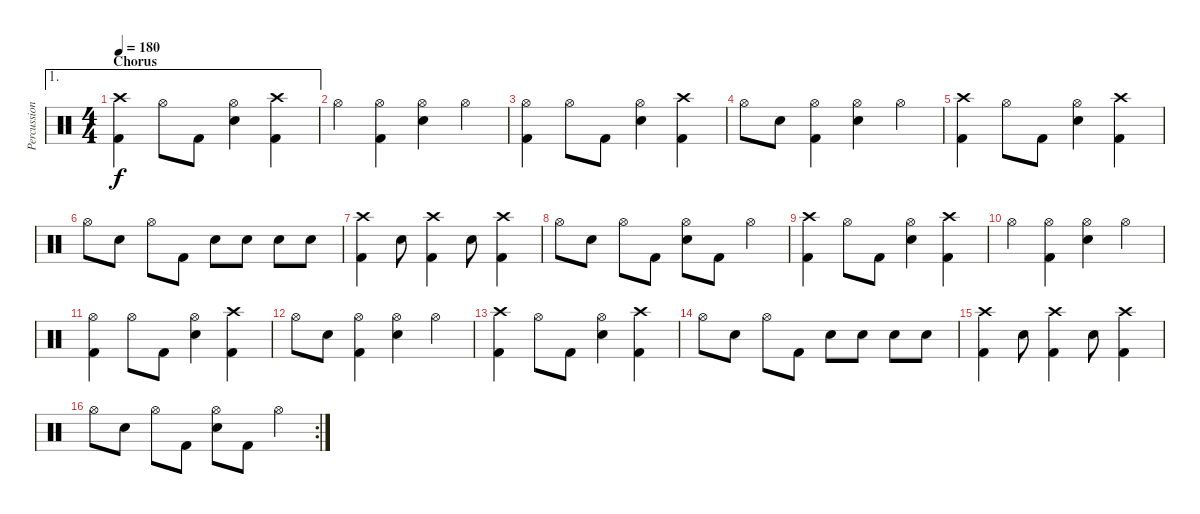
\track ("Percussion" "Percussion") {instrument percussion}
\staff {score}
\articulation defaults
\ae 1
\ts (4 4)
\section ("" "Chorus")
\tempo 180
\clef neutral
\ks c
("Crash high (hit)" "Kick (hit) 2").4{dy f} "Hi-Hat (open)".8 "Kick (hit) 2".8 ("Hi-Hat (open)" "Electric Snare (hit)").4 ("Crash high (hit)" "Kick (hit) 2").4 |
"Hi-Hat (open)".4 ("Hi-Hat (open)" "Kick (hit) 2").4 ("Hi-Hat (open)" "Electric Snare (hit)").4 "Hi-Hat (open)".4 |
("Hi-Hat (open)" "Kick (hit) 2").4 "Hi-Hat (open)".8 "Kick (hit) 2".8 ("Hi-Hat (open)" "Electric Snare (hit)").4 ("Crash high (hit)" "Kick (hit) 2").4 |
"Hi-Hat (open)".8 "Electric Snare (hit)".8 ("Hi-Hat (open)" "Kick (hit) 2").4 ("Hi-Hat (open)" "Electric Snare (hit)").4 "Hi-Hat (open)".4 |
("Crash high (hit)" "Kick (hit) 2").4 "Hi-Hat (open)".8 "Kick (hit) 2".8 ("Hi-Hat (open)" "Electric Snare (hit)").4 ("Crash high (hit)" "Kick (hit) 2").4 |
"Hi-Hat (open)".8 "Electric Snare (hit)".8 "Hi-Hat (open)".8 "Kick (hit) 2".8 "Electric Snare (hit)".8 "Electric Snare (hit)".8 "Electric Snare (hit)".8 "Electric Snare (hit)".8 |
("Crash high (hit)" "Kick (hit) 2").4 "Electric Snare (hit)".8 ("Crash high (hit)" "Kick (hit) 2").4 "Electric Snare (hit)".8 ("Crash high (hit)" "Kick (hit) 2").4 |
"Hi-Hat (open)".8 "Electric Snare (hit)".8 "Hi-Hat (open)".8 "Kick (hit) 2".8 ("Hi-Hat (open)" "Electric Snare (hit)").8 "Kick (hit) 2".8 "Hi-Hat (open)".4 |
("Crash high (hit)" "Kick (hit) 2").4 "Hi-Hat (open)".8 "Kick (hit) 2".8 ("Hi-Hat (open)" "Electric Snare (hit)").4 ("Crash high (hit)" "Kick (hit) 2").4 |
"Hi-Hat (open)".4 ("Hi-Hat (open)" "Kick (hit) 2").4 ("Hi-Hat (open)" "Electric Snare (hit)").4 "Hi-Hat (open)".4 |
("Hi-Hat (open)" "Kick (hit) 2").4 "Hi-Hat (open)".8 "Kick (hit) 2".8 ("Hi-Hat (open)" "Electric Snare (hit)").4 ("Crash high (hit)" "Kick (hit) 2").4 |
"Hi-Hat (open)".8 "Electric Snare (hit)".8 ("Hi-Hat (open)" "Kick (hit) 2").4 ("Hi-Hat (open)" "Electric Snare (hit)").4 "Hi-Hat (open)".4 |
("Crash high (hit)" "Kick (hit) 2").4 "Hi-Hat (open)".8 "Kick (hit) 2".8 ("Hi-Hat (open)" "Electric Snare (hit)").4 ("Crash high (hit)" "Kick (hit) 2").4 |
"Hi-Hat (open)".8 "Electric Snare (hit)".8 "Hi-Hat (open)".8 "Kick (hit) 2".8 "Electric Snare (hit)".8 "Electric Snare (hit)".8 "Electric Snare (hit)".8 "Electric Snare (hit)".8 |
("Crash high (hit)" "Kick (hit) 2").4 "Electric Snare (hit)".8 ("Crash high (hit)" "Kick (hit) 2").4 "Electric Snare (hit)".8 ("Crash high (hit)" "Kick (hit) 2").4 |
\rc 2 "Hi-Hat (open)".8 "Electric Snare (hit)".8 "Hi-Hat (open)".8 "Kick (hit) 2".8
("Hi-Hat (open)" "Electric Snare (hit)").8 "Kick (hit) 2".8 "Hi-Hat (open)".4
